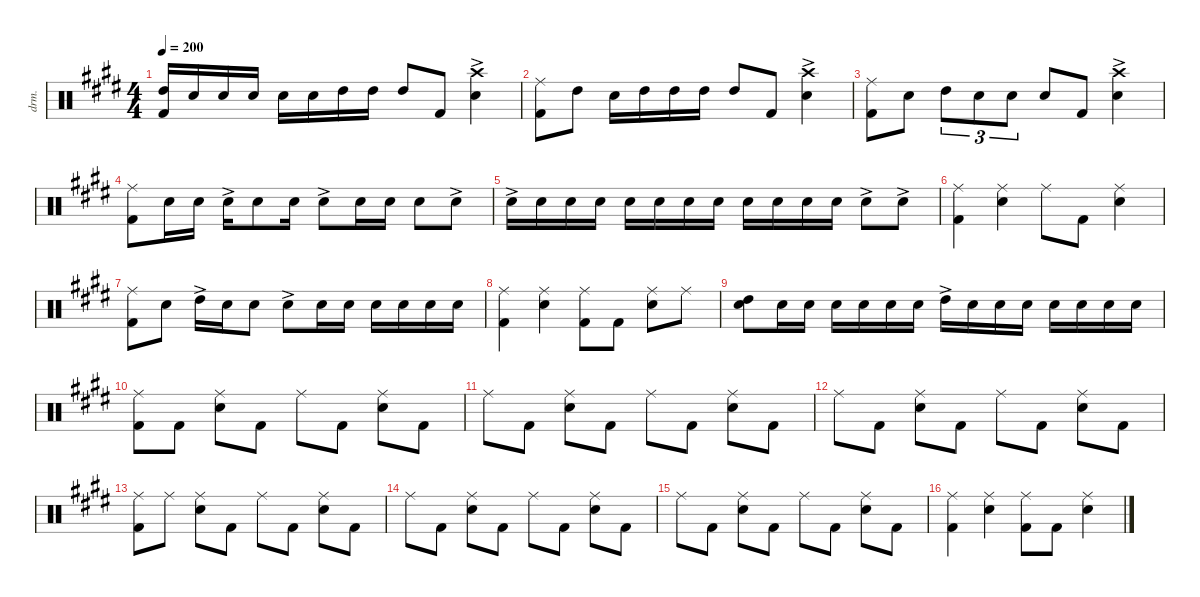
\defaultSystemsLayout 4
\hideDynamics
\bracketExtendMode nobrackets
\otherSystemsTrackNameOrientation horizontal
\track ("Mitch" "drm.") {instrument percussion}
\staff {score}
\articulation defaults
\ts (4 4)
\tempo 200
\clef neutral
\ks e
("High Tom (hit)"{acc forcenatural} "Kick (hit) 2"{acc forcenatural}).16{dy f beam Up} "Snare (hit) 2"{acc forcenatural}.16{beam Up} "Snare (hit) 2"{acc forcenatural}.16{beam Up} "Snare (hit) 2"{acc forcenatural}.16{beam Up} "Snare (hit) 2"{acc forcenatural}.16{beam Down} "Snare (hit) 2"{acc forcenatural}.16{beam Down} "High Tom (hit)"{acc forcenatural}.16{beam Down} "High Tom (hit)"{acc forcenatural}.16{beam Down} "High Tom (hit)"{acc forcenatural}.8{beam Up} "Kick (hit) 2"{acc forcenatural}.8{beam Up} ("Crash high (hit)"{ac acc forcenatural} "Snare (hit) 2"{acc forcenatural}).4{beam Down} |
("Ride (middle)"{acc forcenatural} "Kick (hit) 2"{acc forcenatural}).8{beam Down} "High Tom (hit)"{acc forcenatural}.8{beam Down} "Snare (hit) 2"{acc forcenatural}.16{beam Down} "High Tom (hit)"{acc forcenatural}.16{beam Down} "High Tom (hit)"{acc forcenatural}.16{beam Down} "High Tom (hit)"{acc forcenatural}.16{beam Down} "High Tom (hit)"{acc forcenatural}.8{beam Up} "Kick (hit) 2"{acc forcenatural}.8{beam Up} ("Crash high (hit)"{ac acc forcenatural} "Snare (hit) 2"{acc forcenatural}).4{beam Down} |
("Ride (middle)"{acc forcenatural} "Kick (hit) 2"{acc forcenatural}).8{beam Down} "Snare (hit) 2"{acc forcenatural}.8{beam Down} "High Tom (hit)"{acc forcenatural}.8{tu (3 2) beam Down} "Snare (hit) 2"{acc forcenatural}.8{tu (3 2) beam Down} "Snare (hit) 2"{acc forcenatural}.8{tu (3 2) beam Down} "Snare (hit) 2"{acc forcenatural}.8{beam Up} "Kick (hit) 2"{acc forcenatural}.8{beam Up} ("Crash high (hit)"{ac acc forcenatural} "Snare (hit) 2"{acc forcenatural}).4{beam Down} |
("Ride (middle)"{acc forcenatural} "Kick (hit) 2"{acc forcenatural}).8{beam Down} "Snare (hit) 2"{acc forcenatural}.16{beam Down} "Snare (hit) 2"{acc forcenatural}.16{beam Down} "Snare (hit) 2"{ac acc forcenatural}.16{beam Down} "Snare (hit) 2"{acc forcenatural}.8{beam Down} "Snare (hit) 2"{acc forcenatural}.16{beam Down} "Snare (hit) 2"{ac acc forcenatural}.8{beam Down} "Snare (hit) 2"{acc forcenatural}.16{beam Down} "Snare (hit) 2"{acc forcenatural}.16{beam Down} "Snare (hit) 2"{acc forcenatural}.8{beam Down} "Snare (hit) 2"{ac acc forcenatural}.8{beam Down} |
"Snare (hit) 2"{ac acc forcenatural}.16{beam Down} "Snare (hit) 2"{acc forcenatural}.16{beam Down} "Snare (hit) 2"{acc forcenatural}.16{beam Down} "Snare (hit) 2"{acc forcenatural}.16{beam Down} "Snare (hit) 2"{acc forcenatural}.16{beam Down} "Snare (hit) 2"{acc forcenatural}.16{beam Down} "Snare (hit) 2"{acc forcenatural}.16{beam Down} "Snare (hit) 2"{acc forcenatural}.16{beam Down} "Snare (hit) 2"{acc forcenatural}.16{beam Down} "Snare (hit) 2"{acc forcenatural}.16{beam Down} "Snare (hit) 2"{acc forcenatural}.16{beam Down} "Snare (hit) 2"{acc forcenatural}.16{beam Down} "Snare (hit) 2"{ac acc forcenatural}.8{beam Down} "Snare (hit) 2"{ac acc forcenatural}.8{beam Down} |
("Ride (middle)"{acc forcenatural} "Kick (hit) 2"{acc forcenatural}).4{beam Down} ("Ride (middle)"{acc forcenatural} "Snare (hit) 2"{acc forcenatural}).4{beam Down} "Ride (middle)"{acc forcenatural}.8{beam Down} "Kick (hit) 2"{acc forcenatural}.8{beam Down} ("Ride (middle)"{acc forcenatural} "Snare (hit) 2"{acc forcenatural}).4{beam Down} |
("Ride (middle)"{acc forcenatural} "Kick (hit) 2"{acc forcenatural}).8{beam Down} "Snare (hit) 2"{acc forcenatural}.8{beam Down} "High Tom (hit)"{ac acc forcenatural}.16{beam Down} "Snare (hit) 2"{acc forcenatural}.16{beam Down} "Snare (hit) 2"{acc forcenatural}.8{beam Down} "Snare (hit) 2"{ac acc forcenatural}.8{beam Down} "Snare (hit) 2"{acc forcenatural}.16{beam Down} "Snare (hit) 2"{acc forcenatural}.16{beam Down} "Snare (hit) 2"{acc forcenatural}.16{beam Down} "Snare (hit) 2"{acc forcenatural}.16{beam Down} "Snare (hit) 2"{acc forcenatural}.16{beam Down} "Snare (hit) 2"{acc forcenatural}.16{beam Down} |
("Ride (middle)"{acc forcenatural} "Kick (hit) 2"{acc forcenatural}).4{beam Down} ("Ride (middle)"{acc forcenatural} "Snare (hit) 2"{acc forcenatural}).4{beam Down} ("Ride (middle)"{acc forcenatural} "Kick (hit) 2"{acc forcenatural}).8{beam Down} "Kick (hit) 2"{acc forcenatural}.8{beam Down} ("Ride (middle)"{acc forcenatural} "Snare (hit) 2"{acc forcenatural}).8{beam Down} "Ride (middle)"{acc forcenatural}.8{beam Down} |
("High Tom (hit)"{acc forcenatural} "Snare (hit) 2"{acc forcenatural}).8{beam Down} "Snare (hit) 2"{acc forcenatural}.16{beam Down} "Snare (hit) 2"{acc forcenatural}.16{beam Down} "Snare (hit) 2"{acc forcenatural}.16{beam Down} "Snare (hit) 2"{acc forcenatural}.16{beam Down} "Snare (hit) 2"{acc forcenatural}.16{beam Down} "Snare (hit) 2"{acc forcenatural}.16{beam Down} "High Tom (hit)"{ac acc forcenatural}.16{beam Down} "Snare (hit) 2"{acc forcenatural}.16{beam Down} "Snare (hit) 2"{acc forcenatural}.16{beam Down} "Snare (hit) 2"{acc forcenatural}.16{beam Down} "Snare (hit) 2"{acc forcenatural}.16{beam Down} "Snare (hit) 2"{acc forcenatural}.16{beam Down} "Snare (hit) 2"{acc forcenatural}.16{beam Down} "Snare (hit) 2"{acc forcenatural}.16{beam Down} |
("Ride (middle)"{acc forcenatural} "Kick (hit) 2"{acc forcenatural}).8{beam Down} "Kick (hit) 2"{acc forcenatural}.8{beam Down} ("Ride (middle)"{acc forcenatural} "Snare (hit) 2"{acc forcenatural}).8{beam Down} "Kick (hit) 2"{acc forcenatural}.8{beam Down} "Ride (middle)"{acc forcenatural}.8{beam Down} "Kick (hit) 2"{acc forcenatural}.8{beam Down} ("Ride (middle)"{acc forcenatural} "Snare (hit) 2"{acc forcenatural}).8{beam Down} "Kick (hit) 2"{acc forcenatural}.8{beam Down} |
"Ride (middle)"{acc forcenatural}.8{beam Down} "Kick (hit) 2"{acc forcenatural}.8{beam Down} ("Ride (middle)"{acc forcenatural} "Snare (hit) 2"{acc forcenatural}).8{beam Down} "Kick (hit) 2"{acc forcenatural}.8{beam Down} "Ride (middle)"{acc forcenatural}.8{beam Down} "Kick (hit) 2"{acc forcenatural}.8{beam Down} ("Ride (middle)"{acc forcenatural} "Snare (hit) 2"{acc forcenatural}).8{beam Down} "Kick (hit) 2"{acc forcenatural}.8{beam Down} |
"Ride (middle)"{acc forcenatural}.8{beam Down} "Kick (hit) 2"{acc forcenatural}.8{beam Down} ("Ride (middle)"{acc forcenatural} "Snare (hit) 2"{acc forcenatural}).8{beam Down} "Kick (hit) 2"{acc forcenatural}.8{beam Down} "Ride (middle)"{acc forcenatural}.8{beam Down} "Kick (hit) 2"{acc forcenatural}.8{beam Down} ("Ride (middle)"{acc forcenatural} "Snare (hit) 2"{acc forcenatural}).8{beam Down} "Kick (hit) 2"{acc forcenatural}.8{beam Down} |
("Ride (middle)"{acc forcenatural} "Kick (hit) 2"{acc forcenatural}).8{beam Down} "Ride (middle)"{acc forcenatural}.8{beam Down} ("Ride (middle)"{acc forcenatural} "Snare (hit) 2"{acc forcenatural}).8{beam Down} "Kick (hit) 2"{acc forcenatural}.8{beam Down} "Ride (middle)"{acc forcenatural}.8{beam Down} "Kick (hit) 2"{acc forcenatural}.8{beam Down} ("Ride (middle)"{acc forcenatural} "Snare (hit) 2"{acc forcenatural}).8{beam Down} "Kick (hit) 2"{acc forcenatural}.8{beam Down} |
"Ride (middle)"{acc forcenatural}.8{beam Down} "Kick (hit) 2"{acc forcenatural}.8{beam Down} ("Ride (middle)"{acc forcenatural} "Snare (hit) 2"{acc forcenatural}).8{beam Down} "Kick (hit) 2"{acc forcenatural}.8{beam Down} "Ride (middle)"{acc forcenatural}.8{beam Down} "Kick (hit) 2"{acc forcenatural}.8{beam Down} ("Ride (middle)"{acc forcenatural} "Snare (hit) 2"{acc forcenatural}).8{beam Down} "Kick (hit) 2"{acc forcenatural}.8{beam Down} |
"Ride (middle)"{acc forcenatural}.8{beam Down} "Kick (hit) 2"{acc forcenatural}.8{beam Down} ("Ride (middle)"{acc forcenatural} "Snare (hit) 2"{acc forcenatural}).8{beam Down} "Kick (hit) 2"{acc forcenatural}.8{beam Down} "Ride (middle)"{acc forcenatural}.8{beam Down} "Kick (hit) 2"{acc forcenatural}.8{beam Down} ("Ride (middle)"{acc forcenatural} "Snare (hit) 2"{acc forcenatural}).8{beam Down} "Kick (hit) 2"{acc forcenatural}.8{beam Down} |
("Ride (middle)"{acc forcenatural} "Kick (hit) 2"{acc forcenatural}).4{beam Down} ("Ride (middle)"{acc forcenatural} "Snare (hit) 2"{acc forcenatural}).4{beam Down} ("Ride (middle)"{acc forcenatural} "Kick (hit) 2"{acc forcenatural}).8{beam Down} "Kick (hit) 2"{acc forcenatural}.8{beam Down} ("Ride (middle)"{acc forcenatural} "Snare (hit) 2"{acc forcenatural}).4{beam Down}
